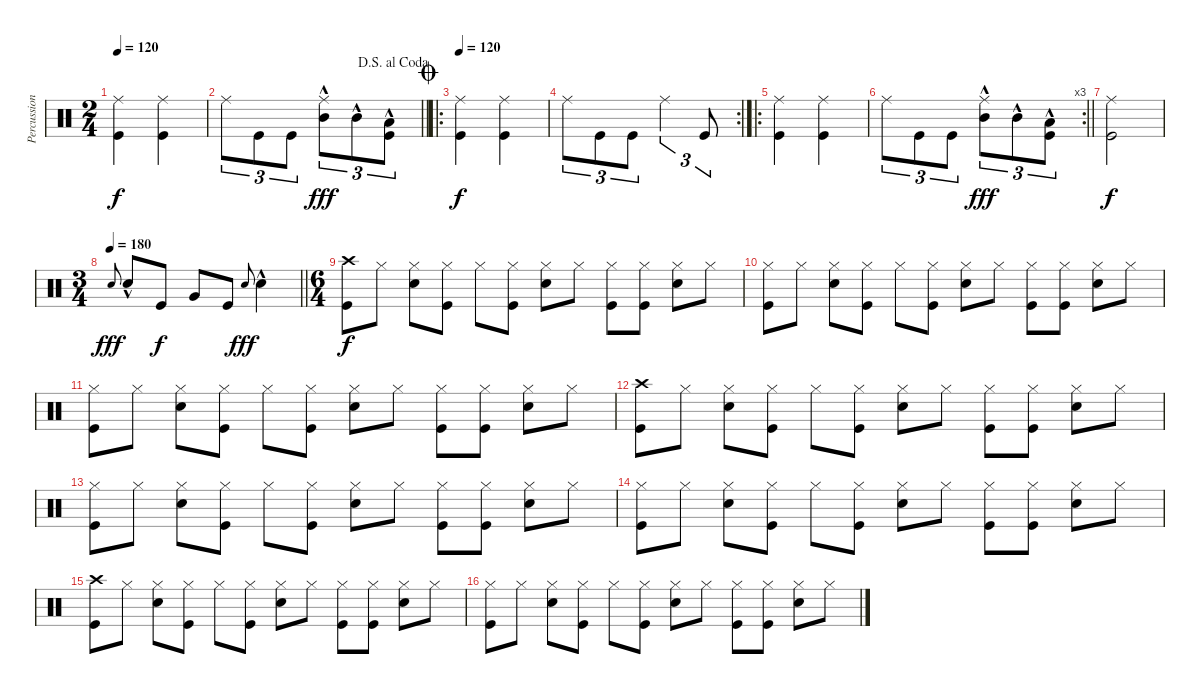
\track ("Percussions" "Percussion") {instrument percussion}
\staff {score}
\articulation defaults
\ts (2 4)
\tempo 120
\clef neutral
\ks c
("Kick (hit)" "Ride (middle)").4{dy f} ("Kick (hit)" "Ride (middle)").4 |
\jump dalsegnoalcoda
\barLineRight lightlight "Ride (middle)".8{tu (3 2)} "Kick (hit)".8{tu (3 2)} "Kick (hit)".8{tu (3 2)}
("Ride (middle)" "Mid Tom (hit)"{hac}).8{tu (3 2) dy fff} "Mid Tom (hit)"{hac}.8{tu (3 2)} ("Low Tom (hit)"{hac} "Kick (hit)").8{tu (3 2)} |
\ro
\jump coda
\tempo 120
("Kick (hit)" "Ride (middle)").4{dy f} ("Kick (hit)" "Ride (middle)").4 |
\rc 2 "Ride (middle)".8{tu (3 2)} "Kick (hit)".8{tu (3 2)} "Kick (hit)".8{tu (3 2)} "Ride (middle)".4{tu (3 2)} "Kick (hit)".8{tu (3 2)}
|
\ro
("Kick (hit)" "Ride (middle)").4 ("Kick (hit)" "Ride (middle)").4 |
\rc 3
\barLineRight lightlight "Ride (middle)".8{tu (3 2)} "Kick (hit)".8{tu (3 2)} "Kick (hit)".8{tu (3 2)}
("Ride (middle)" "Mid Tom (hit)"{hac}).8{tu (3 2) dy fff} "Mid Tom (hit)"{hac}.8{tu (3 2)} ("Low Tom (hit)"{hac} "Kick (hit)").8{tu (3 2)} |
("Kick (hit)" "Ride (middle)").2{dy f} |
\ts (3 4)
\tempo 180
\barLineRight lightlight "Snare (hit) 2".8{gr onbeat dy fff} "Snare (hit) 2"{hac}.8 "Kick (hit)".8{dy f} "Very Low Tom (hit)".8 "Kick (hit)".8 "Snare (hit) 2".8{gr onbeat dy fff} "Snare (hit) 2"{hac}.4
|
\ts (6 4)
("Crash high (hit)" "Kick (hit)").8{dy f} "Hi-Hat (closed)".8 ("Snare (hit) 2" "Hi-Hat (closed)").8 ("Hi-Hat (closed)" "Kick (hit)").8 "Hi-Hat (closed)".8 ("Hi-Hat (closed)" "Kick (hit)").8 ("Snare (hit) 2" "Hi-Hat (closed)").8 "Hi-Hat (closed)".8 ("Hi-Hat (closed)" "Kick (hit)").8 ("Kick (hit)" "Hi-Hat (closed)").8 ("Snare (hit) 2" "Hi-Hat (closed)").8 "Hi-Hat (closed)".8 |
("Hi-Hat (closed)" "Kick (hit)").8 "Hi-Hat (closed)".8 ("Snare (hit) 2" "Hi-Hat (closed)").8 ("Hi-Hat (closed)" "Kick (hit)").8 "Hi-Hat (closed)".8 ("Hi-Hat (closed)" "Kick (hit)").8 ("Snare (hit) 2" "Hi-Hat (closed)").8 "Hi-Hat (closed)".8 ("Hi-Hat (closed)" "Kick (hit)").8 ("Kick (hit)" "Hi-Hat (closed)").8 ("Snare (hit) 2" "Hi-Hat (closed)").8 "Hi-Hat (closed)".8 |
("Hi-Hat (closed)" "Kick (hit)").8 "Hi-Hat (closed)".8 ("Snare (hit) 2" "Hi-Hat (closed)").8 ("Hi-Hat (closed)" "Kick (hit)").8 "Hi-Hat (closed)".8 ("Hi-Hat (closed)" "Kick (hit)").8 ("Snare (hit) 2" "Hi-Hat (closed)").8 "Hi-Hat (closed)".8 ("Hi-Hat (closed)" "Kick (hit)").8 ("Kick (hit)" "Hi-Hat (closed)").8 ("Snare (hit) 2" "Hi-Hat (closed)").8 "Hi-Hat (closed)".8 |
("Crash high (hit)" "Kick (hit)").8 "Hi-Hat (closed)".8 ("Snare (hit) 2" "Hi-Hat (closed)").8 ("Hi-Hat (closed)" "Kick (hit)").8 "Hi-Hat (closed)".8 ("Hi-Hat (closed)" "Kick (hit)").8 ("Snare (hit) 2" "Hi-Hat (closed)").8 "Hi-Hat (closed)".8 ("Hi-Hat (closed)" "Kick (hit)").8 ("Kick (hit)" "Hi-Hat (closed)").8 ("Snare (hit) 2" "Hi-Hat (closed)").8 "Hi-Hat (closed)".8 |
("Hi-Hat (closed)" "Kick (hit)").8 "Hi-Hat (closed)".8 ("Snare (hit) 2" "Hi-Hat (closed)").8 ("Hi-Hat (closed)" "Kick (hit)").8 "Hi-Hat (closed)".8 ("Hi-Hat (closed)" "Kick (hit)").8 ("Snare (hit) 2" "Hi-Hat (closed)").8 "Hi-Hat (closed)".8 ("Hi-Hat (closed)" "Kick (hit)").8 ("Kick (hit)" "Hi-Hat (closed)").8 ("Snare (hit) 2" "Hi-Hat (closed)").8 "Hi-Hat (closed)".8 |
("Hi-Hat (closed)" "Kick (hit)").8 "Hi-Hat (closed)".8 ("Snare (hit) 2" "Hi-Hat (closed)").8 ("Hi-Hat (closed)" "Kick (hit)").8 "Hi-Hat (closed)".8 ("Hi-Hat (closed)" "Kick (hit)").8 ("Snare (hit) 2" "Hi-Hat (closed)").8 "Hi-Hat (closed)".8 ("Hi-Hat (closed)" "Kick (hit)").8 ("Kick (hit)" "Hi-Hat (closed)").8 ("Snare (hit) 2" "Hi-Hat (closed)").8 "Hi-Hat (closed)".8 |
("Crash high (hit)" "Kick (hit)").8 "Hi-Hat (closed)".8 ("Snare (hit) 2" "Hi-Hat (closed)").8 ("Hi-Hat (closed)" "Kick (hit)").8 "Hi-Hat (closed)".8 ("Hi-Hat (closed)" "Kick (hit)").8 ("Snare (hit) 2" "Hi-Hat (closed)").8 "Hi-Hat (closed)".8 ("Hi-Hat (closed)" "Kick (hit)").8 ("Kick (hit)" "Hi-Hat (closed)").8 ("Snare (hit) 2" "Hi-Hat (closed)").8 "Hi-Hat (closed)".8 |
("Hi-Hat (closed)" "Kick (hit)").8 "Hi-Hat (closed)".8 ("Snare (hit) 2" "Hi-Hat (closed)").8 ("Hi-Hat (closed)" "Kick (hit)").8 "Hi-Hat (closed)".8 ("Hi-Hat (closed)" "Kick (hit)").8 ("Snare (hit) 2" "Hi-Hat (closed)").8 "Hi-Hat (closed)".8 ("Hi-Hat (closed)" "Kick (hit)").8 ("Kick (hit)" "Hi-Hat (closed)").8 ("Snare (hit) 2" "Hi-Hat (closed)").8 "Hi-Hat (closed)".8
